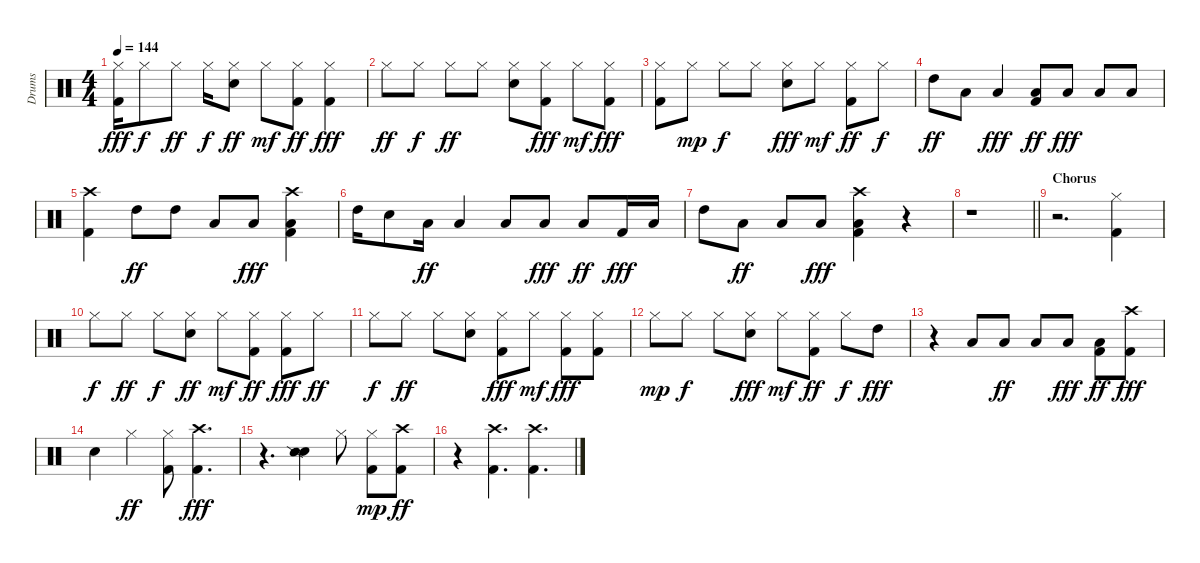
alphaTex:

\track ("Drums" "Drums") {instrument percussion}
\staff {score}
\articulation defaults
\ts (4 4)
\tempo 144
\clef neutral
\ks c
("Kick (hit) 2" "Hi-Hat (closed)").16{dy fff} "Hi-Hat (closed)".8{dy f} "Hi-Hat (closed)".8{dy ff} "Hi-Hat (closed)".16{dy f} ("Snare (hit) 2" "Hi-Hat (closed)").8{dy ff} "Hi-Hat (closed)".8{dy mf} ("Kick (hit) 2" "Hi-Hat (closed)").8{dy ff} ("Kick (hit) 2" "Hi-Hat (closed)").4{dy fff} |
"Hi-Hat (closed)".8{dy ff} "Hi-Hat (closed)".8{dy f} "Hi-Hat (closed)".8{dy ff} "Hi-Hat (closed)".8 ("Snare (hit) 2" "Hi-Hat (closed)").8 ("Kick (hit) 2" "Hi-Hat (closed)").8{dy fff} "Hi-Hat (closed)".8{dy mf} ("Kick (hit) 2" "Hi-Hat (closed)").8{dy fff} |
("Kick (hit) 2" "Hi-Hat (closed)").8 "Hi-Hat (closed)".8{dy mp} "Hi-Hat (closed)".8{dy f} "Hi-Hat (closed)".8 ("Snare (hit) 2" "Hi-Hat (closed)").8{dy fff} "Hi-Hat (closed)".8{dy mf} ("Kick (hit) 2" "Hi-Hat (closed)").8{dy ff} "Hi-Hat (closed)".8{dy f} |
"High Tom (hit)".8{dy ff} "Low Tom (hit)".8 "Low Tom (hit)".4{dy fff} ("Low Tom (hit)" "Kick (hit) 2").8{dy ff} "Low Tom (hit)".8{dy fff} "Low Floor Tom (hit)".8 "Low Floor Tom (hit)".8 |
("Crash high (hit)" "Kick (hit) 2").4 "High Tom (hit)".8{dy ff} "High Tom (hit)".8 "Low Tom (hit)".8 "Low Tom (hit)".8{dy fff} ("Low Floor Tom (hit)" "Crash high (hit)" "Kick (hit) 2").4 |
"High Tom (hit)".16 "Snare (hit) 2".8 "Low Tom (hit)".16{dy ff} "Low Tom (hit)".4 "Low Tom (hit)".8 "Low Floor Tom (hit)".8{dy fff} "Low Floor Tom (hit)".8{dy ff} "Kick (hit) 2".16{dy fff} "Low Floor Tom (hit)".16 |
"High Tom (hit)".8 "Low Tom (hit)".8{dy ff} "Low Tom (hit)".8 "Low Tom (hit)".8{dy fff} ("Crash high (hit)" "Kick (hit) 2" "Low Floor Tom (hit)").4 r.4 |
\barLineRight lightlight
r.1 |
\section ("" "Chorus")
r.2{d} ("Kick (hit) 2" "Hi-Hat (closed)").4 |
"Hi-Hat (closed)".8{dy f} "Hi-Hat (closed)".8{dy ff} "Hi-Hat (closed)".8{dy f} ("Snare (hit) 2" "Hi-Hat (closed)").8{dy ff} "Hi-Hat (closed)".8{dy mf} ("Kick (hit) 2" "Hi-Hat (closed)").8{dy ff} ("Kick (hit) 2" "Hi-Hat (closed)").8{dy fff} "Hi-Hat (closed)".8{dy ff} |
"Hi-Hat (closed)".8{dy f} "Hi-Hat (closed)".8{dy ff} "Hi-Hat (closed)".8 ("Snare (hit) 2" "Hi-Hat (closed)").8 ("Kick (hit) 2" "Hi-Hat (closed)").8{dy fff} "Hi-Hat (closed)".8{dy mf} ("Kick (hit) 2" "Hi-Hat (closed)").8{dy fff} ("Kick (hit) 2" "Hi-Hat (closed)").8 |
"Hi-Hat (closed)".8{dy mp} "Hi-Hat (closed)".8{dy f} "Hi-Hat (closed)".8 ("Snare (hit) 2" "Hi-Hat (closed)").8{dy fff} "Hi-Hat (closed)".8{dy mf} ("Kick (hit) 2" "Hi-Hat (closed)").8{dy ff} "Hi-Hat (closed)".8{dy f} "High Tom (hit)".8{dy fff} |
r.4 "Low Tom (hit)".8 "Low Tom (hit)".8{dy ff} "Low Tom (hit)".8 "Low Floor Tom (hit)".8{dy fff} ("Low Floor Tom (hit)" "Kick (hit) 2").8{dy ff} ("Crash high (hit)" "Kick (hit) 2").8{dy fff} |
"Snare (hit) 2".4 "Hi-Hat (closed)".4{dy ff} ("Kick (hit) 2" "Hi-Hat (closed)").8 ("Kick (hit) 2" "Crash high (hit)").4{d dy fff} |
r.4{d} ("Snare (hit) 2" "Snare (side stick) 2").4 "Hi-Hat (closed)".8 ("Kick (hit) 2" "Hi-Hat (closed)").8{dy mp} ("Kick (hit) 2" "Crash high (hit)").8{dy ff} |
r.4 ("Kick (hit) 2" "Crash high (hit)").4{d} ("Kick (hit) 2" "Crash high (hit)").4{d}
